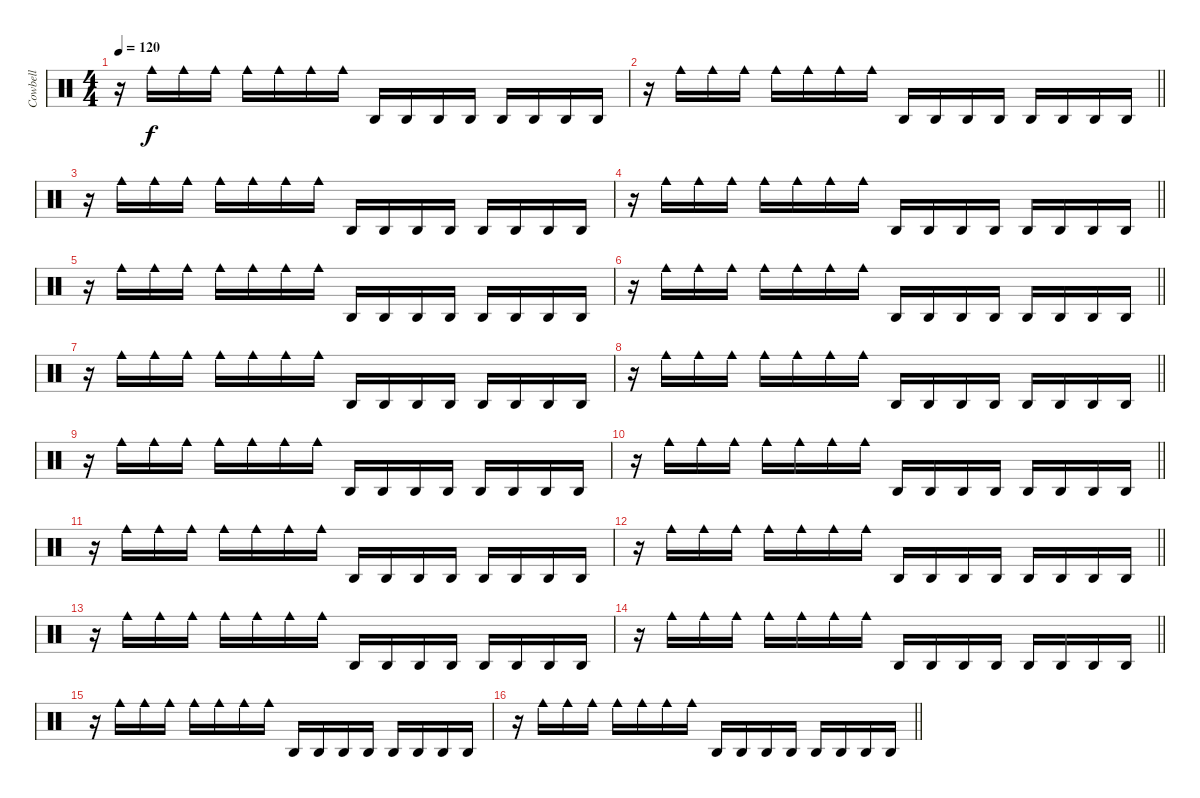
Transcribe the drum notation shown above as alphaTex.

\track ("Cowbell" "Cowbell") {instrument percussion}
\staff {score}
\articulation defaults
\ts (4 4)
\tempo 120
\clef neutral
\ks c
r.16{dy f} "Cowbell medium (hit)".16 "Cowbell medium (hit)".16 "Cowbell medium (hit)".16 "Cowbell medium (hit)".16 "Cowbell medium (hit)".16 "Cowbell medium (hit)".16 "Cowbell medium (hit)".16 "Agogo high (hit)".16 "Agogo high (hit)".16 "Agogo high (hit)".16 "Agogo high (hit)".16 "Agogo high (hit)".16 "Agogo high (hit)".16 "Agogo high (hit)".16 "Agogo high (hit)".16 |
\barLineRight lightlight
r.16 "Cowbell medium (hit)".16 "Cowbell medium (hit)".16 "Cowbell medium (hit)".16 "Cowbell medium (hit)".16 "Cowbell medium (hit)".16 "Cowbell medium (hit)".16 "Cowbell medium (hit)".16 "Agogo high (hit)".16 "Agogo high (hit)".16 "Agogo high (hit)".16 "Agogo high (hit)".16 "Agogo high (hit)".16 "Agogo high (hit)".16 "Agogo high (hit)".16 "Agogo high (hit)".16 |
r.16 "Cowbell medium (hit)".16 "Cowbell medium (hit)".16 "Cowbell medium (hit)".16 "Cowbell medium (hit)".16 "Cowbell medium (hit)".16 "Cowbell medium (hit)".16 "Cowbell medium (hit)".16 "Agogo high (hit)".16 "Agogo high (hit)".16 "Agogo high (hit)".16 "Agogo high (hit)".16 "Agogo high (hit)".16 "Agogo high (hit)".16 "Agogo high (hit)".16 "Agogo high (hit)".16 |
\barLineRight lightlight
r.16 "Cowbell medium (hit)".16 "Cowbell medium (hit)".16 "Cowbell medium (hit)".16 "Cowbell medium (hit)".16 "Cowbell medium (hit)".16 "Cowbell medium (hit)".16 "Cowbell medium (hit)".16 "Agogo high (hit)".16 "Agogo high (hit)".16 "Agogo high (hit)".16 "Agogo high (hit)".16 "Agogo high (hit)".16 "Agogo high (hit)".16 "Agogo high (hit)".16 "Agogo high (hit)".16 |
r.16 "Cowbell medium (hit)".16 "Cowbell medium (hit)".16 "Cowbell medium (hit)".16 "Cowbell medium (hit)".16 "Cowbell medium (hit)".16 "Cowbell medium (hit)".16 "Cowbell medium (hit)".16 "Agogo high (hit)".16 "Agogo high (hit)".16 "Agogo high (hit)".16 "Agogo high (hit)".16 "Agogo high (hit)".16 "Agogo high (hit)".16 "Agogo high (hit)".16 "Agogo high (hit)".16 |
\barLineRight lightlight
r.16 "Cowbell medium (hit)".16 "Cowbell medium (hit)".16 "Cowbell medium (hit)".16 "Cowbell medium (hit)".16 "Cowbell medium (hit)".16 "Cowbell medium (hit)".16 "Cowbell medium (hit)".16 "Agogo high (hit)".16 "Agogo high (hit)".16 "Agogo high (hit)".16 "Agogo high (hit)".16 "Agogo high (hit)".16 "Agogo high (hit)".16 "Agogo high (hit)".16 "Agogo high (hit)".16 |
r.16 "Cowbell medium (hit)".16 "Cowbell medium (hit)".16 "Cowbell medium (hit)".16 "Cowbell medium (hit)".16 "Cowbell medium (hit)".16 "Cowbell medium (hit)".16 "Cowbell medium (hit)".16 "Agogo high (hit)".16 "Agogo high (hit)".16 "Agogo high (hit)".16 "Agogo high (hit)".16 "Agogo high (hit)".16 "Agogo high (hit)".16 "Agogo high (hit)".16 "Agogo high (hit)".16 |
\barLineRight lightlight
r.16 "Cowbell medium (hit)".16 "Cowbell medium (hit)".16 "Cowbell medium (hit)".16 "Cowbell medium (hit)".16 "Cowbell medium (hit)".16 "Cowbell medium (hit)".16 "Cowbell medium (hit)".16 "Agogo high (hit)".16 "Agogo high (hit)".16 "Agogo high (hit)".16 "Agogo high (hit)".16 "Agogo high (hit)".16 "Agogo high (hit)".16 "Agogo high (hit)".16 "Agogo high (hit)".16 |
r.16 "Cowbell medium (hit)".16 "Cowbell medium (hit)".16 "Cowbell medium (hit)".16 "Cowbell medium (hit)".16 "Cowbell medium (hit)".16 "Cowbell medium (hit)".16 "Cowbell medium (hit)".16 "Agogo high (hit)".16 "Agogo high (hit)".16 "Agogo high (hit)".16 "Agogo high (hit)".16 "Agogo high (hit)".16 "Agogo high (hit)".16 "Agogo high (hit)".16 "Agogo high (hit)".16 |
\barLineRight lightlight
r.16 "Cowbell medium (hit)".16 "Cowbell medium (hit)".16 "Cowbell medium (hit)".16 "Cowbell medium (hit)".16 "Cowbell medium (hit)".16 "Cowbell medium (hit)".16 "Cowbell medium (hit)".16 "Agogo high (hit)".16 "Agogo high (hit)".16 "Agogo high (hit)".16 "Agogo high (hit)".16 "Agogo high (hit)".16 "Agogo high (hit)".16 "Agogo high (hit)".16 "Agogo high (hit)".16 |
r.16 "Cowbell medium (hit)".16 "Cowbell medium (hit)".16 "Cowbell medium (hit)".16 "Cowbell medium (hit)".16 "Cowbell medium (hit)".16 "Cowbell medium (hit)".16 "Cowbell medium (hit)".16 "Agogo high (hit)".16 "Agogo high (hit)".16 "Agogo high (hit)".16 "Agogo high (hit)".16 "Agogo high (hit)".16 "Agogo high (hit)".16 "Agogo high (hit)".16 "Agogo high (hit)".16 |
\barLineRight lightlight
r.16 "Cowbell medium (hit)".16 "Cowbell medium (hit)".16 "Cowbell medium (hit)".16 "Cowbell medium (hit)".16 "Cowbell medium (hit)".16 "Cowbell medium (hit)".16 "Cowbell medium (hit)".16 "Agogo high (hit)".16 "Agogo high (hit)".16 "Agogo high (hit)".16 "Agogo high (hit)".16 "Agogo high (hit)".16 "Agogo high (hit)".16 "Agogo high (hit)".16 "Agogo high (hit)".16 |
r.16 "Cowbell medium (hit)".16 "Cowbell medium (hit)".16 "Cowbell medium (hit)".16 "Cowbell medium (hit)".16 "Cowbell medium (hit)".16 "Cowbell medium (hit)".16 "Cowbell medium (hit)".16 "Agogo high (hit)".16 "Agogo high (hit)".16 "Agogo high (hit)".16 "Agogo high (hit)".16 "Agogo high (hit)".16 "Agogo high (hit)".16 "Agogo high (hit)".16 "Agogo high (hit)".16 |
\barLineRight lightlight
r.16 "Cowbell medium (hit)".16 "Cowbell medium (hit)".16 "Cowbell medium (hit)".16 "Cowbell medium (hit)".16 "Cowbell medium (hit)".16 "Cowbell medium (hit)".16 "Cowbell medium (hit)".16 "Agogo high (hit)".16 "Agogo high (hit)".16 "Agogo high (hit)".16 "Agogo high (hit)".16 "Agogo high (hit)".16 "Agogo high (hit)".16 "Agogo high (hit)".16 "Agogo high (hit)".16 |
r.16 "Cowbell medium (hit)".16 "Cowbell medium (hit)".16 "Cowbell medium (hit)".16 "Cowbell medium (hit)".16 "Cowbell medium (hit)".16 "Cowbell medium (hit)".16 "Cowbell medium (hit)".16 "Agogo high (hit)".16 "Agogo high (hit)".16 "Agogo high (hit)".16 "Agogo high (hit)".16 "Agogo high (hit)".16 "Agogo high (hit)".16 "Agogo high (hit)".16 "Agogo high (hit)".16 |
\barLineRight lightlight
r.16 "Cowbell medium (hit)".16 "Cowbell medium (hit)".16 "Cowbell medium (hit)".16 "Cowbell medium (hit)".16 "Cowbell medium (hit)".16 "Cowbell medium (hit)".16 "Cowbell medium (hit)".16 "Agogo high (hit)".16 "Agogo high (hit)".16 "Agogo high (hit)".16 "Agogo high (hit)".16 "Agogo high (hit)".16 "Agogo high (hit)".16 "Agogo high (hit)".16 "Agogo high (hit)".16
